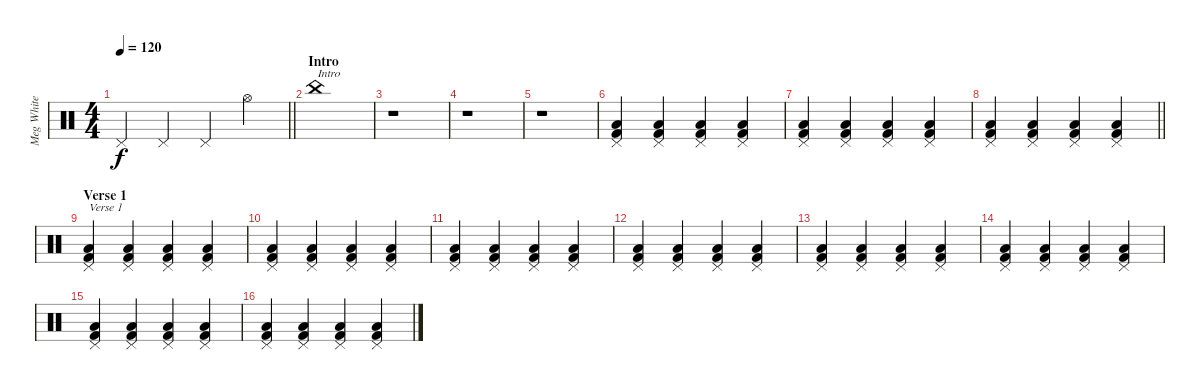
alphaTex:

\track ("Meg White" "Meg White") {instrument percussion}
\staff {score}
\articulation defaults
\ts (4 4)
\tempo 120
\clef neutral
\barLineRight lightlight
\ks c "Pedal Hi-Hat (hit)".4{dy f} "Pedal Hi-Hat (hit)".4 "Pedal Hi-Hat (hit)".4 "Hi-Hat (open)".4
|
\section ("" "Intro")
"China (hit)".1{txt "Intro"} |
r.1 |
r.1 |
r.1 |
("Pedal Hi-Hat (hit)" "Low Floor Tom (hit)" "Kick (hit) 2").4 ("Pedal Hi-Hat (hit)" "Low Floor Tom (hit)" "Kick (hit) 2").4 ("Pedal Hi-Hat (hit)" "Low Floor Tom (hit)" "Kick (hit) 2").4 ("Pedal Hi-Hat (hit)" "Low Floor Tom (hit)" "Kick (hit) 2").4 |
("Pedal Hi-Hat (hit)" "Low Floor Tom (hit)" "Kick (hit) 2").4 ("Pedal Hi-Hat (hit)" "Low Floor Tom (hit)" "Kick (hit) 2").4 ("Pedal Hi-Hat (hit)" "Low Floor Tom (hit)" "Kick (hit) 2").4 ("Pedal Hi-Hat (hit)" "Low Floor Tom (hit)" "Kick (hit) 2").4 |
\barLineRight lightlight
("Pedal Hi-Hat (hit)" "Low Floor Tom (hit)" "Kick (hit) 2").4 ("Pedal Hi-Hat (hit)" "Low Floor Tom (hit)" "Kick (hit) 2").4 ("Pedal Hi-Hat (hit)" "Low Floor Tom (hit)" "Kick (hit) 2").4 ("Pedal Hi-Hat (hit)" "Low Floor Tom (hit)" "Kick (hit) 2").4 |
\section ("" "Verse 1")
("Pedal Hi-Hat (hit)" "Low Floor Tom (hit)" "Kick (hit) 2").4{txt "Verse 1"} ("Pedal Hi-Hat (hit)" "Low Floor Tom (hit)" "Kick (hit) 2").4 ("Pedal Hi-Hat (hit)" "Low Floor Tom (hit)" "Kick (hit) 2").4 ("Pedal Hi-Hat (hit)" "Low Floor Tom (hit)" "Kick (hit) 2").4 |
("Pedal Hi-Hat (hit)" "Low Floor Tom (hit)" "Kick (hit) 2").4 ("Pedal Hi-Hat (hit)" "Low Floor Tom (hit)" "Kick (hit) 2").4 ("Pedal Hi-Hat (hit)" "Low Floor Tom (hit)" "Kick (hit) 2").4 ("Pedal Hi-Hat (hit)" "Low Floor Tom (hit)" "Kick (hit) 2").4 |
("Pedal Hi-Hat (hit)" "Low Floor Tom (hit)" "Kick (hit) 2").4 ("Pedal Hi-Hat (hit)" "Low Floor Tom (hit)" "Kick (hit) 2").4 ("Pedal Hi-Hat (hit)" "Low Floor Tom (hit)" "Kick (hit) 2").4 ("Pedal Hi-Hat (hit)" "Low Floor Tom (hit)" "Kick (hit) 2").4 |
("Pedal Hi-Hat (hit)" "Low Floor Tom (hit)" "Kick (hit) 2").4 ("Pedal Hi-Hat (hit)" "Low Floor Tom (hit)" "Kick (hit) 2").4 ("Pedal Hi-Hat (hit)" "Low Floor Tom (hit)" "Kick (hit) 2").4 ("Pedal Hi-Hat (hit)" "Low Floor Tom (hit)" "Kick (hit) 2").4 |
("Pedal Hi-Hat (hit)" "Low Floor Tom (hit)" "Kick (hit) 2").4 ("Pedal Hi-Hat (hit)" "Low Floor Tom (hit)" "Kick (hit) 2").4 ("Pedal Hi-Hat (hit)" "Low Floor Tom (hit)" "Kick (hit) 2").4 ("Pedal Hi-Hat (hit)" "Low Floor Tom (hit)" "Kick (hit) 2").4 |
("Pedal Hi-Hat (hit)" "Low Floor Tom (hit)" "Kick (hit) 2").4 ("Pedal Hi-Hat (hit)" "Low Floor Tom (hit)" "Kick (hit) 2").4 ("Pedal Hi-Hat (hit)" "Low Floor Tom (hit)" "Kick (hit) 2").4 ("Pedal Hi-Hat (hit)" "Low Floor Tom (hit)" "Kick (hit) 2").4 |
("Pedal Hi-Hat (hit)" "Low Floor Tom (hit)" "Kick (hit) 2").4 ("Pedal Hi-Hat (hit)" "Low Floor Tom (hit)" "Kick (hit) 2").4 ("Pedal Hi-Hat (hit)" "Low Floor Tom (hit)" "Kick (hit) 2").4 ("Pedal Hi-Hat (hit)" "Low Floor Tom (hit)" "Kick (hit) 2").4 |
("Pedal Hi-Hat (hit)" "Low Floor Tom (hit)" "Kick (hit) 2").4 ("Pedal Hi-Hat (hit)" "Low Floor Tom (hit)" "Kick (hit) 2").4 ("Pedal Hi-Hat (hit)" "Low Floor Tom (hit)" "Kick (hit) 2").4 ("Pedal Hi-Hat (hit)" "Low Floor Tom (hit)" "Kick (hit) 2").4
